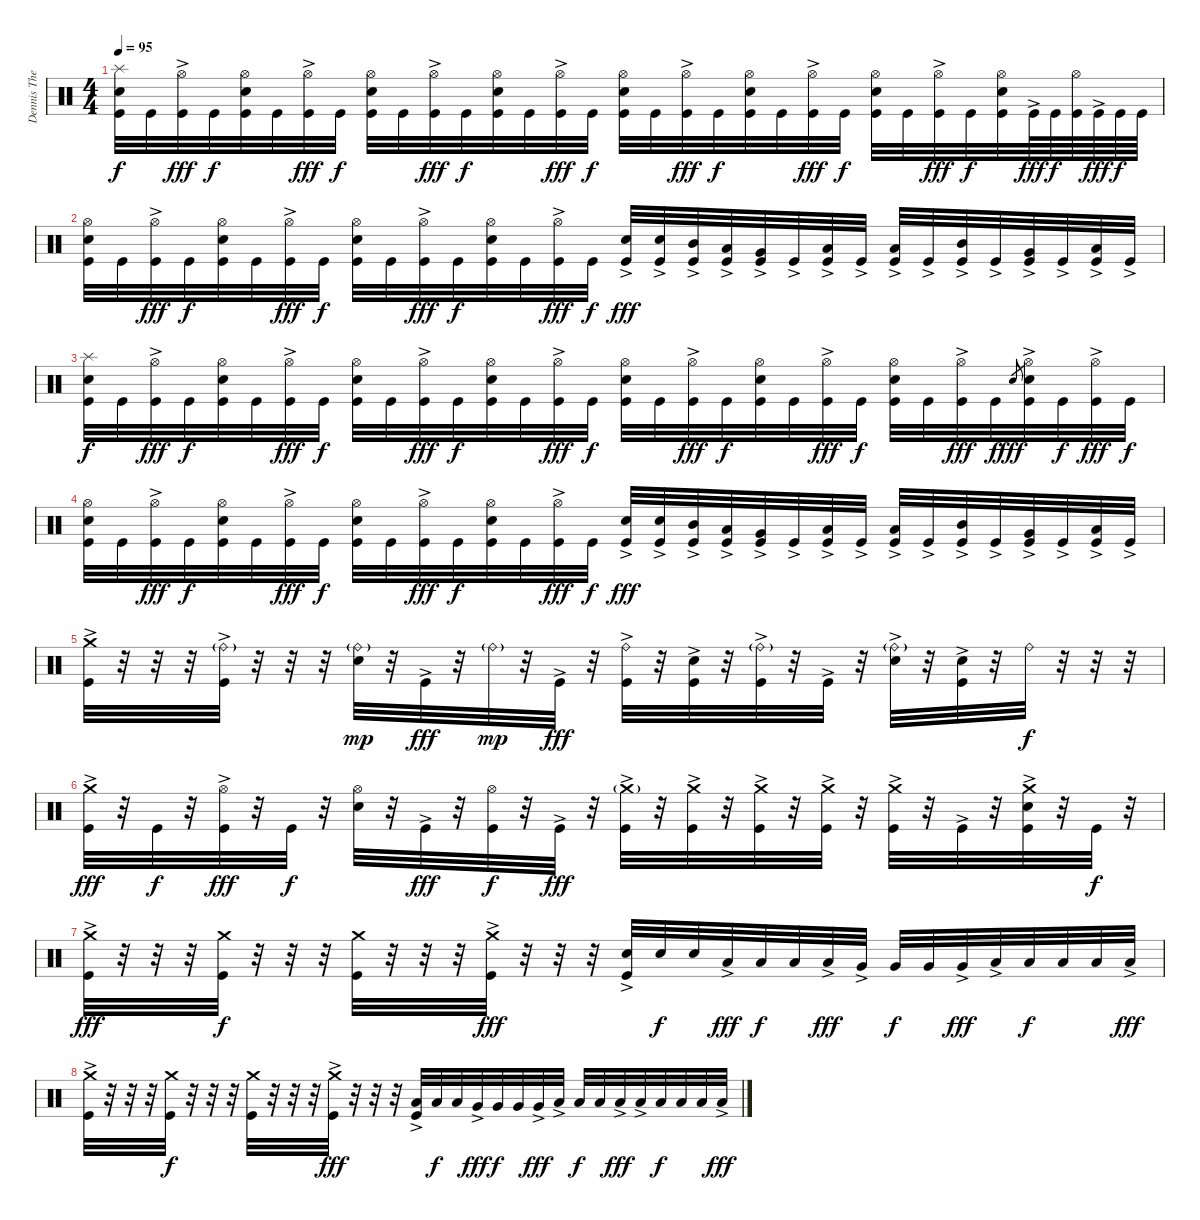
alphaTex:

\track ("Dennis The Menace" "Dennis The") {instrument percussion}
\staff {score}
\articulation defaults
\ts (4 4)
\tempo 95
\clef neutral
\ks c
("Splash (hit)" "Electric Snare (hit)" "Kick (hit)").32{dy f} "Kick (hit)".32 ("Hi-Hat (open)" "Kick (hit)"{ac}).32{dy fff} "Kick (hit)".32{dy f} ("Hi-Hat (open)" "Electric Snare (hit)" "Kick (hit)").32 "Kick (hit)".32 ("Hi-Hat (open)" "Kick (hit)"{ac}).32{dy fff} "Kick (hit)".32{dy f} ("Hi-Hat (open)" "Electric Snare (hit)" "Kick (hit)").32 "Kick (hit)".32 ("Hi-Hat (open)" "Kick (hit)"{ac}).32{dy fff} "Kick (hit)".32{dy f} ("Hi-Hat (open)" "Electric Snare (hit)" "Kick (hit)").32 "Kick (hit)".32 ("Hi-Hat (open)" "Kick (hit)"{ac}).32{dy fff} "Kick (hit)".32{dy f} ("Hi-Hat (open)" "Electric Snare (hit)" "Kick (hit)").32 "Kick (hit)".32 ("Hi-Hat (open)" "Kick (hit)"{ac}).32{dy fff} "Kick (hit)".32{dy f} ("Hi-Hat (open)" "Electric Snare (hit)" "Kick (hit)").32 "Kick (hit)".32 ("Hi-Hat (open)" "Kick (hit)"{ac}).32{dy fff} "Kick (hit)".32{dy f} ("Hi-Hat (open)" "Electric Snare (hit)" "Kick (hit)").32 "Kick (hit)".32 ("Hi-Hat (open)" "Kick (hit)"{ac}).32{dy fff} "Kick (hit)".32{dy f} ("Hi-Hat (open)" "Electric Snare (hit)" "Kick (hit)").32 "Kick (hit)"{ac}.64{dy fff} "Kick (hit)".64{dy f} ("Hi-Hat (open)" "Kick (hit)").64 "Kick (hit)"{ac}.64{dy fff} "Kick (hit)".64{dy f} "Kick (hit)".64 |
("Hi-Hat (open)" "Electric Snare (hit)" "Kick (hit)").32 "Kick (hit)".32 ("Hi-Hat (open)" "Kick (hit)"{ac}).32{dy fff} "Kick (hit)".32{dy f} ("Hi-Hat (open)" "Electric Snare (hit)" "Kick (hit)").32 "Kick (hit)".32 ("Hi-Hat (open)" "Kick (hit)"{ac}).32{dy fff} "Kick (hit)".32{dy f} ("Hi-Hat (open)" "Electric Snare (hit)" "Kick (hit)").32 "Kick (hit)".32 ("Hi-Hat (open)" "Kick (hit)"{ac}).32{dy fff} "Kick (hit)".32{dy f} ("Hi-Hat (open)" "Electric Snare (hit)" "Kick (hit)").32 "Kick (hit)".32 ("Hi-Hat (open)" "Kick (hit)"{ac}).32{dy fff} "Kick (hit)".32{dy f} ("Electric Snare (hit)"{ac} "Kick (hit)"{ac}).32{dy fff} ("Electric Snare (hit)"{ac} "Kick (hit)"{ac}).32 ("Mid Tom (hit)" "Kick (hit)"{ac}).32 ("Low Tom (hit)" "Kick (hit)"{ac}).32 ("Very Low Tom (hit)" "Kick (hit)"{ac}).32 "Kick (hit)"{ac}.32 ("Low Floor Tom (hit)" "Kick (hit)"{ac}).32 "Kick (hit)"{ac}.32 ("Low Tom (hit)" "Kick (hit)"{ac}).32 "Kick (hit)"{ac}.32 ("Mid Tom (hit)" "Kick (hit)"{ac}).32 "Kick (hit)"{ac}.32 ("Very Low Tom (hit)" "Kick (hit)"{ac}).32 "Kick (hit)"{ac}.32 ("Low Floor Tom (hit)" "Kick (hit)"{ac}).32 "Kick (hit)"{ac}.32 |
("Splash (hit)" "Electric Snare (hit)" "Kick (hit)").32{dy f} "Kick (hit)".32 ("Hi-Hat (open)" "Kick (hit)"{ac}).32{dy fff} "Kick (hit)".32{dy f} ("Hi-Hat (open)" "Electric Snare (hit)" "Kick (hit)").32 "Kick (hit)".32 ("Hi-Hat (open)" "Kick (hit)"{ac}).32{dy fff} "Kick (hit)".32{dy f} ("Hi-Hat (open)" "Electric Snare (hit)" "Kick (hit)").32 "Kick (hit)".32 ("Hi-Hat (open)" "Kick (hit)"{ac}).32{dy fff} "Kick (hit)".32{dy f} ("Hi-Hat (open)" "Electric Snare (hit)" "Kick (hit)").32 "Kick (hit)".32 ("Hi-Hat (open)" "Kick (hit)"{ac}).32{dy fff} "Kick (hit)".32{dy f} ("Hi-Hat (open)" "Electric Snare (hit)" "Kick (hit)").32 "Kick (hit)".32 ("Hi-Hat (open)" "Kick (hit)"{ac}).32{dy fff} "Kick (hit)".32{dy f} ("Hi-Hat (open)" "Electric Snare (hit)" "Kick (hit)").32 "Kick (hit)".32 ("Hi-Hat (open)" "Kick (hit)"{ac}).32{dy fff} "Kick (hit)".32{dy f} ("Hi-Hat (open)" "Electric Snare (hit)" "Kick (hit)").32 "Kick (hit)".32 ("Hi-Hat (open)" "Kick (hit)"{ac}).32{dy fff} "Kick (hit)".32{dy f} "Electric Snare (hit)".8{gr dy fff} ("Hi-Hat (open)" "Electric Snare (hit)"{ac} "Kick (hit)").32 "Kick (hit)".32{dy f} ("Hi-Hat (open)" "Kick (hit)"{ac}).32{dy fff} "Kick (hit)".32{dy f} |
("Hi-Hat (open)" "Electric Snare (hit)" "Kick (hit)").32 "Kick (hit)".32 ("Hi-Hat (open)" "Kick (hit)"{ac}).32{dy fff} "Kick (hit)".32{dy f} ("Hi-Hat (open)" "Electric Snare (hit)" "Kick (hit)").32 "Kick (hit)".32 ("Hi-Hat (open)" "Kick (hit)"{ac}).32{dy fff} "Kick (hit)".32{dy f} ("Hi-Hat (open)" "Electric Snare (hit)" "Kick (hit)").32 "Kick (hit)".32 ("Hi-Hat (open)" "Kick (hit)"{ac}).32{dy fff} "Kick (hit)".32{dy f} ("Hi-Hat (open)" "Electric Snare (hit)" "Kick (hit)").32 "Kick (hit)".32 ("Hi-Hat (open)" "Kick (hit)"{ac}).32{dy fff} "Kick (hit)".32{dy f} ("Electric Snare (hit)"{ac} "Kick (hit)"{ac}).32{dy fff} ("Electric Snare (hit)"{ac} "Kick (hit)"{ac}).32 ("Mid Tom (hit)" "Kick (hit)"{ac}).32 ("Low Tom (hit)" "Kick (hit)"{ac}).32 ("Very Low Tom (hit)" "Kick (hit)"{ac}).32 "Kick (hit)"{ac}.32 ("Low Floor Tom (hit)" "Kick (hit)"{ac}).32 "Kick (hit)"{ac}.32 ("Low Tom (hit)" "Kick (hit)"{ac}).32 "Kick (hit)"{ac}.32 ("Mid Tom (hit)" "Kick (hit)"{ac}).32 "Kick (hit)"{ac}.32 ("Very Low Tom (hit)" "Kick (hit)"{ac}).32 "Kick (hit)"{ac}.32 ("Low Floor Tom (hit)" "Kick (hit)"{ac}).32 "Kick (hit)"{ac}.32 |
("Crash medium (hit)" "Kick (hit)"{ac}).32 r.32 r.32 r.32 ("Ride (bell)"{g} "Kick (hit)"{ac}).32 r.32 r.32 r.32 ("Ride (bell)"{g} "Electric Snare (hit)").32{dy mp} r.32 "Kick (hit)"{ac}.32{dy fff} r.32 "Ride (bell)"{g}.32{dy mp} r.32 "Kick (hit)"{ac}.32{dy fff} r.32 ("Ride (bell)" "Kick (hit)"{ac}).32 r.32 ("Electric Snare (hit)"{ac} "Kick (hit)"{ac}).32 r.32 ("Ride (bell)"{g} "Kick (hit)"{ac}).32 r.32 "Kick (hit)"{ac}.32 r.32 ("Ride (bell)"{g} "Electric Snare (hit)"{ac}).32 r.32 ("Electric Snare (hit)" "Kick (hit)"{ac}).32 r.32 "Ride (bell)".32{dy f} r.32 r.32 r.32 |
("Crash medium (hit)" "Kick (hit)"{ac}).32{dy fff} r.32 "Kick (hit)".32{dy f} r.32 ("Hi-Hat (open)" "Kick (hit)"{ac}).32{dy fff} r.32 "Kick (hit)".32{dy f} r.32 ("Hi-Hat (open)" "Electric Snare (hit)").32 r.32 "Kick (hit)"{ac}.32{dy fff} r.32 ("Hi-Hat (open)" "Kick (hit)").32{dy f} r.32 "Kick (hit)"{ac}.32{dy fff} r.32 ("Crash medium (hit)"{g} "Kick (hit)"{ac}).32 r.32 ("Crash medium (hit)" "Kick (hit)"{ac}).32 r.32 ("Crash medium (hit)" "Kick (hit)"{ac}).32 r.32 ("Crash medium (hit)"{ac} "Kick (hit)"{ac}).32 r.32 ("Crash medium (hit)"{ac} "Kick (hit)"{ac}).32 r.32 "Kick (hit)"{ac}.32 r.32 ("Crash medium (hit)" "Kick (hit)" "Electric Snare (hit)"{ac}).32 r.32 "Kick (hit)".32{dy f} r.32 |
("Crash medium (hit)"{ac} "Kick (hit)").32{dy fff} r.32 r.32 r.32 ("Crash medium (hit)" "Kick (hit)").32{dy f} r.32 r.32 r.32 ("Crash medium (hit)" "Kick (hit)").32 r.32 r.32 r.32 ("Crash medium (hit)"{ac} "Kick (hit)").32{dy fff} r.32 r.32 r.32 ("Electric Snare (hit)"{ac} "Kick (hit)").32 "Electric Snare (hit)".32{dy f} "Electric Snare (hit)".32 "Low Tom (hit)"{ac}.32{dy fff} "Low Tom (hit)".32{dy f} "Low Tom (hit)".32 "Low Tom (hit)"{ac}.32{dy fff} "Very Low Tom (hit)"{ac}.32 "Very Low Tom (hit)".32{dy f} "Very Low Tom (hit)".32 "Very Low Tom (hit)"{ac}.32{dy fff} "Low Floor Tom (hit)"{ac}.32 "Low Floor Tom (hit)".32{dy f} "Low Floor Tom (hit)".32 "Low Floor Tom (hit)".32 "Low Floor Tom (hit)"{ac}.32{dy fff} |
("Crash medium (hit)"{ac} "Kick (hit)").32 r.32 r.32 r.32 ("Crash medium (hit)" "Kick (hit)").32{dy f} r.32 r.32 r.32 ("Crash medium (hit)" "Kick (hit)").32 r.32 r.32 r.32 ("Crash medium (hit)"{ac} "Kick (hit)").32{dy fff} r.32 r.32 r.32 ("Low Floor Tom (hit)"{ac} "Kick (hit)").32 "Low Floor Tom (hit)".32{dy f} "Low Floor Tom (hit)".32 "Very Low Tom (hit)"{ac}.32{dy fff} "Very Low Tom (hit)".32{dy f} "Very Low Tom (hit)".32 "Very Low Tom (hit)"{ac}.32{dy fff} "Low Floor Tom (hit)"{ac}.32 "Low Floor Tom (hit)".32{dy f} "Low Floor Tom (hit)".32 "Low Floor Tom (hit)"{ac}.32{dy fff} "Low Floor Tom (hit)"{ac}.32 "Low Floor Tom (hit)".32{dy f} "Low Floor Tom (hit)".32 "Low Floor Tom (hit)".32 "Low Floor Tom (hit)"{ac}.32{dy fff}
